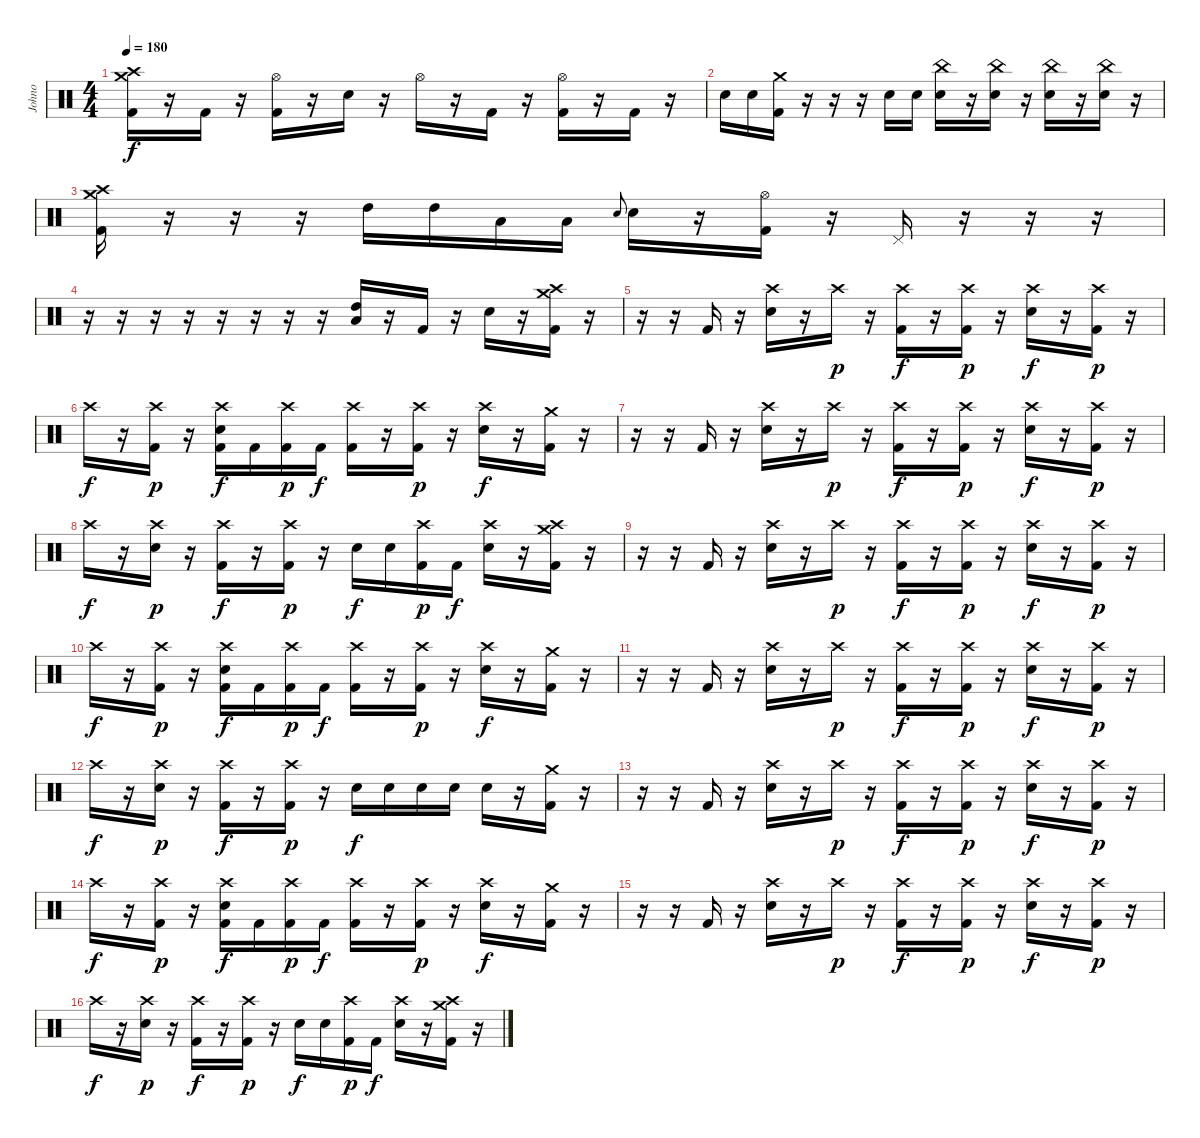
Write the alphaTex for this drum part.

\track (" Johno" " Johno") {instrument percussion}
\staff {score}
\articulation defaults
\ts (4 4)
\tempo 180
\clef neutral
\ks c
("Crash medium (hit)" "Crash high (hit)" "Kick (hit) 2").16{dy f} r.16 "Kick (hit) 2".16 r.16 ("Hi-Hat (open)" "Kick (hit) 2").16 r.16 "Electric Snare (hit)".16 r.16 "Hi-Hat (open)".16 r.16 "Kick (hit) 2".16 r.16 ("Hi-Hat (open)" "Kick (hit) 2").16 r.16 "Kick (hit) 2".16 r.16 |
"Electric Snare (hit)".16 "Electric Snare (hit)".16 ("Crash medium (hit)" "Kick (hit) 2").16 r.16 r.16 r.16 "Electric Snare (hit)".16 "Electric Snare (hit)".16 ("China (hit)" "Electric Snare (hit)").16 r.16 ("China (hit)" "Electric Snare (hit)").16 r.16 ("China (hit)" "Electric Snare (hit)").16 r.16 ("China (hit)" "Electric Snare (hit)").16 r.16 |
("Crash medium (hit)" "Crash high (hit)" "Kick (hit) 2").16 r.16 r.16 r.16 "High Tom (hit)".16 "High Tom (hit)".16 "Low Floor Tom (hit)".16 "Low Floor Tom (hit)".16 "Electric Snare (hit)".8{gr onbeat} "Electric Snare (hit)".16 r.16 ("Hi-Hat (open)" "Kick (hit) 2").16 r.16 "Pedal Hi-Hat (hit)".16 r.16 r.16 r.16 |
r.16 r.16 r.16 r.16 r.16 r.16 r.16 r.16 ("High Tom (hit)" "Low Floor Tom (hit)").16 r.16 "Kick (hit) 2".16 r.16 "Electric Snare (hit)".16 r.16 ("Crash high (hit)" "Crash medium (hit)" "Kick (hit) 2").16 r.16 |
r.16 r.16 "Kick (hit) 2".16 r.16 ("Crash high (hit)" "Electric Snare (hit)").16 r.16 "Crash high (hit)".16{dy p} r.16 ("Crash high (hit)" "Kick (hit) 2").16{dy f} r.16 ("Crash high (hit)" "Kick (hit) 2").16{dy p} r.16 ("Crash high (hit)" "Electric Snare (hit)").16{dy f} r.16 ("Crash high (hit)" "Kick (hit) 2").16{dy p} r.16 |
"Crash high (hit)".16{dy f} r.16 ("Crash high (hit)" "Kick (hit) 2").16{dy p} r.16 ("Crash high (hit)" "Electric Snare (hit)" "Kick (hit) 2").16{dy f} "Kick (hit) 2".16 ("Crash high (hit)" "Kick (hit) 2").16{dy p} "Kick (hit) 2".16{dy f} ("Crash high (hit)" "Kick (hit) 2").16 r.16 ("Crash high (hit)" "Kick (hit) 2").16{dy p} r.16 ("Crash high (hit)" "Electric Snare (hit)").16{dy f} r.16 ("Crash medium (hit)" "Kick (hit) 2").16 r.16 |
r.16 r.16 "Kick (hit) 2".16 r.16 ("Crash high (hit)" "Electric Snare (hit)").16 r.16 "Crash high (hit)".16{dy p} r.16 ("Crash high (hit)" "Kick (hit) 2").16{dy f} r.16 ("Crash high (hit)" "Kick (hit) 2").16{dy p} r.16 ("Crash high (hit)" "Electric Snare (hit)").16{dy f} r.16 ("Crash high (hit)" "Kick (hit) 2").16{dy p} r.16 |
"Crash high (hit)".16{dy f} r.16 ("Crash high (hit)" "Electric Snare (hit)").16{dy p} r.16 ("Crash high (hit)" "Kick (hit) 2").16{dy f} r.16 ("Crash high (hit)" "Kick (hit) 2").16{dy p} r.16 "Electric Snare (hit)".16{dy f} "Electric Snare (hit)".16 ("Crash high (hit)" "Kick (hit) 2").16{dy p} "Kick (hit) 2".16{dy f} ("Crash high (hit)" "Electric Snare (hit)").16 r.16 ("Crash high (hit)" "Crash medium (hit)" "Kick (hit) 2").16 r.16 |
r.16 r.16 "Kick (hit) 2".16 r.16 ("Crash high (hit)" "Electric Snare (hit)").16 r.16 "Crash high (hit)".16{dy p} r.16 ("Crash high (hit)" "Kick (hit) 2").16{dy f} r.16 ("Crash high (hit)" "Kick (hit) 2").16{dy p} r.16 ("Crash high (hit)" "Electric Snare (hit)").16{dy f} r.16 ("Crash high (hit)" "Kick (hit) 2").16{dy p} r.16 |
"Crash high (hit)".16{dy f} r.16 ("Crash high (hit)" "Kick (hit) 2").16{dy p} r.16 ("Crash high (hit)" "Electric Snare (hit)" "Kick (hit) 2").16{dy f} "Kick (hit) 2".16 ("Crash high (hit)" "Kick (hit) 2").16{dy p} "Kick (hit) 2".16{dy f} ("Crash high (hit)" "Kick (hit) 2").16 r.16 ("Crash high (hit)" "Kick (hit) 2").16{dy p} r.16 ("Crash high (hit)" "Electric Snare (hit)").16{dy f} r.16 ("Crash medium (hit)" "Kick (hit) 2").16 r.16 |
r.16 r.16 "Kick (hit) 2".16 r.16 ("Crash high (hit)" "Electric Snare (hit)").16 r.16 "Crash high (hit)".16{dy p} r.16 ("Crash high (hit)" "Kick (hit) 2").16{dy f} r.16 ("Crash high (hit)" "Kick (hit) 2").16{dy p} r.16 ("Crash high (hit)" "Electric Snare (hit)").16{dy f} r.16 ("Crash high (hit)" "Kick (hit) 2").16{dy p} r.16 |
"Crash high (hit)".16{dy f} r.16 ("Crash high (hit)" "Electric Snare (hit)").16{dy p} r.16 ("Crash high (hit)" "Kick (hit) 2").16{dy f} r.16 ("Crash high (hit)" "Kick (hit) 2").16{dy p} r.16 "Electric Snare (hit)".16{dy f} "Electric Snare (hit)".16 "Electric Snare (hit)".16 "Electric Snare (hit)".16 "Electric Snare (hit)".16 r.16 ("Crash medium (hit)" "Kick (hit) 2").16 r.16 |
r.16 r.16 "Kick (hit) 2".16 r.16 ("Crash high (hit)" "Electric Snare (hit)").16 r.16 "Crash high (hit)".16{dy p} r.16 ("Crash high (hit)" "Kick (hit) 2").16{dy f} r.16 ("Crash high (hit)" "Kick (hit) 2").16{dy p} r.16 ("Crash high (hit)" "Electric Snare (hit)").16{dy f} r.16 ("Crash high (hit)" "Kick (hit) 2").16{dy p} r.16 |
"Crash high (hit)".16{dy f} r.16 ("Crash high (hit)" "Kick (hit) 2").16{dy p} r.16 ("Crash high (hit)" "Electric Snare (hit)" "Kick (hit) 2").16{dy f} "Kick (hit) 2".16 ("Crash high (hit)" "Kick (hit) 2").16{dy p} "Kick (hit) 2".16{dy f} ("Crash high (hit)" "Kick (hit) 2").16 r.16 ("Crash high (hit)" "Kick (hit) 2").16{dy p} r.16 ("Crash high (hit)" "Electric Snare (hit)").16{dy f} r.16 ("Crash medium (hit)" "Kick (hit) 2").16 r.16 |
r.16 r.16 "Kick (hit) 2".16 r.16 ("Crash high (hit)" "Electric Snare (hit)").16 r.16 "Crash high (hit)".16{dy p} r.16 ("Crash high (hit)" "Kick (hit) 2").16{dy f} r.16 ("Crash high (hit)" "Kick (hit) 2").16{dy p} r.16 ("Crash high (hit)" "Electric Snare (hit)").16{dy f} r.16 ("Crash high (hit)" "Kick (hit) 2").16{dy p} r.16 |
"Crash high (hit)".16{dy f} r.16 ("Crash high (hit)" "Electric Snare (hit)").16{dy p} r.16 ("Crash high (hit)" "Kick (hit) 2").16{dy f} r.16 ("Crash high (hit)" "Kick (hit) 2").16{dy p} r.16 "Electric Snare (hit)".16{dy f} "Electric Snare (hit)".16 ("Crash high (hit)" "Kick (hit) 2").16{dy p} "Kick (hit) 2".16{dy f} ("Crash high (hit)" "Electric Snare (hit)").16 r.16 ("Crash high (hit)" "Crash medium (hit)" "Kick (hit) 2").16 r.16
